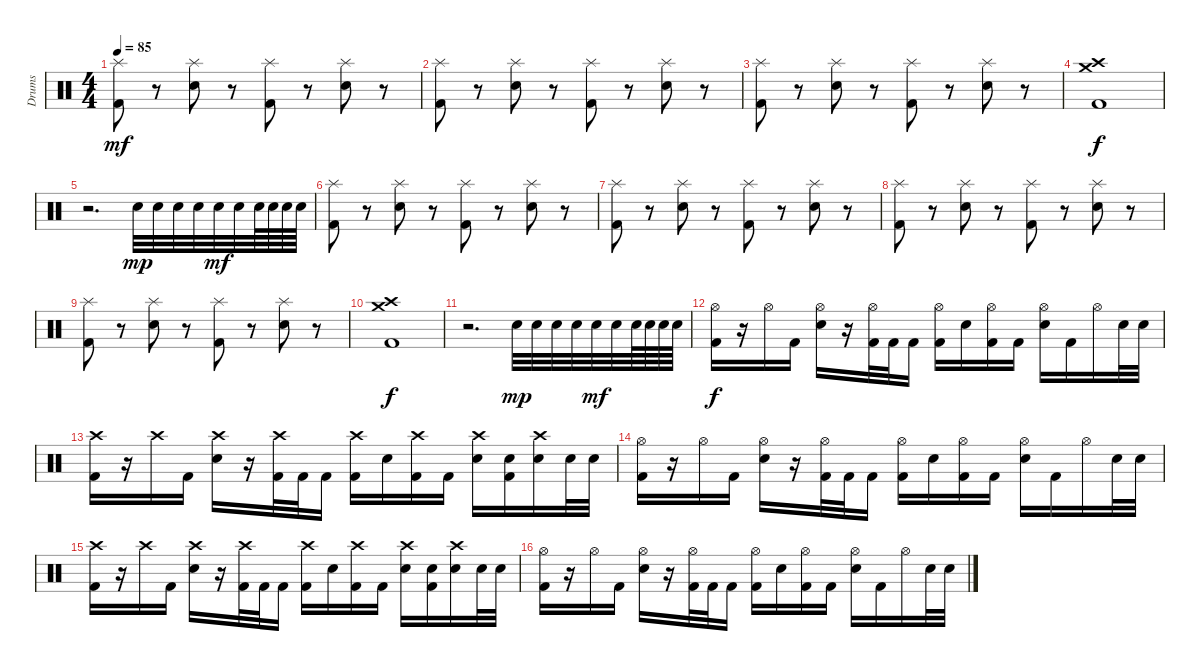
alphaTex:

\track ("Drums" "Drums") {instrument percussion}
\staff {score}
\articulation defaults
\ts (4 4)
\tempo 85
\clef neutral
\ks c
("Splash (hit)" "Kick (hit) 2").8{dy mf} r.8 ("Splash (hit)" "Snare (hit) 2").8 r.8 ("Splash (hit)" "Kick (hit) 2").8 r.8 ("Splash (hit)" "Snare (hit) 2").8 r.8 |
("Splash (hit)" "Kick (hit) 2").8 r.8 ("Splash (hit)" "Snare (hit) 2").8 r.8 ("Splash (hit)" "Kick (hit) 2").8 r.8 ("Splash (hit)" "Snare (hit) 2").8 r.8 |
("Splash (hit)" "Kick (hit) 2").8 r.8 ("Splash (hit)" "Snare (hit) 2").8 r.8 ("Splash (hit)" "Kick (hit) 2").8 r.8 ("Splash (hit)" "Snare (hit) 2").8 r.8 |
("Crash high (hit)" "Kick (hit) 2" "Crash medium (hit)").1{dy f} |
r.2{d} "Electric Snare (hit)".32{dy mp} "Electric Snare (hit)".32 "Electric Snare (hit)".32 "Electric Snare (hit)".32 "Electric Snare (hit)".32{dy mf} "Electric Snare (hit)".32 "Electric Snare (hit)".64 "Electric Snare (hit)".64 "Electric Snare (hit)".64 "Electric Snare (hit)".64 |
("Splash (hit)" "Kick (hit) 2").8 r.8 ("Splash (hit)" "Snare (hit) 2").8 r.8 ("Splash (hit)" "Kick (hit) 2").8 r.8 ("Splash (hit)" "Snare (hit) 2").8 r.8 |
("Splash (hit)" "Kick (hit) 2").8 r.8 ("Splash (hit)" "Snare (hit) 2").8 r.8 ("Splash (hit)" "Kick (hit) 2").8 r.8 ("Splash (hit)" "Snare (hit) 2").8 r.8 |
("Splash (hit)" "Kick (hit) 2").8 r.8 ("Splash (hit)" "Snare (hit) 2").8 r.8 ("Splash (hit)" "Kick (hit) 2").8 r.8 ("Splash (hit)" "Snare (hit) 2").8 r.8 |
("Splash (hit)" "Kick (hit) 2").8 r.8 ("Splash (hit)" "Snare (hit) 2").8 r.8 ("Splash (hit)" "Kick (hit) 2").8 r.8 ("Splash (hit)" "Snare (hit) 2").8 r.8 |
("Crash high (hit)" "Kick (hit) 2" "Crash medium (hit)").1{dy f} |
r.2{d} "Electric Snare (hit)".32{dy mp} "Electric Snare (hit)".32 "Electric Snare (hit)".32 "Electric Snare (hit)".32 "Electric Snare (hit)".32{dy mf} "Electric Snare (hit)".32 "Electric Snare (hit)".64 "Electric Snare (hit)".64 "Electric Snare (hit)".64 "Electric Snare (hit)".64 |
("Hi-Hat (open)" "Kick (hit) 2").16{dy f} r.16 "Hi-Hat (open)".16 "Kick (hit) 2".16 ("Hi-Hat (open)" "Snare (hit) 2").16 r.16 ("Hi-Hat (open)" "Kick (hit) 2").32 "Kick (hit) 2".32 "Kick (hit) 2".16 ("Hi-Hat (open)" "Kick (hit) 2").16 "Snare (hit) 2".16 ("Hi-Hat (open)" "Kick (hit) 2").16 "Kick (hit) 2".16 ("Hi-Hat (open)" "Snare (hit) 2").16 "Kick (hit) 2".16 "Hi-Hat (open)".16 "Snare (hit) 2".32 "Snare (hit) 2".32 |
("Crash high (hit)" "Kick (hit) 2").16 r.16 "Crash high (hit)".16 "Kick (hit) 2".16 ("Crash high (hit)" "Snare (hit) 2").16 r.16 ("Crash high (hit)" "Kick (hit) 2").32 "Kick (hit) 2".32 "Kick (hit) 2".16 ("Crash high (hit)" "Kick (hit) 2").16 "Snare (hit) 2".16 ("Crash high (hit)" "Kick (hit) 2").16 "Kick (hit) 2".16 ("Crash high (hit)" "Snare (hit) 2").16 ("Snare (hit) 2" "Kick (hit) 2").16 ("Crash high (hit)" "Snare (hit) 2").16 "Snare (hit) 2".32 "Snare (hit) 2".32 |
("Hi-Hat (open)" "Kick (hit) 2").16 r.16 "Hi-Hat (open)".16 "Kick (hit) 2".16 ("Hi-Hat (open)" "Snare (hit) 2").16 r.16 ("Hi-Hat (open)" "Kick (hit) 2").32 "Kick (hit) 2".32 "Kick (hit) 2".16 ("Hi-Hat (open)" "Kick (hit) 2").16 "Snare (hit) 2".16 ("Hi-Hat (open)" "Kick (hit) 2").16 "Kick (hit) 2".16 ("Hi-Hat (open)" "Snare (hit) 2").16 "Kick (hit) 2".16 "Hi-Hat (open)".16 "Snare (hit) 2".32 "Snare (hit) 2".32 |
("Crash high (hit)" "Kick (hit) 2").16 r.16 "Crash high (hit)".16 "Kick (hit) 2".16 ("Crash high (hit)" "Snare (hit) 2").16 r.16 ("Crash high (hit)" "Kick (hit) 2").32 "Kick (hit) 2".32 "Kick (hit) 2".16 ("Crash high (hit)" "Kick (hit) 2").16 "Snare (hit) 2".16 ("Crash high (hit)" "Kick (hit) 2").16 "Kick (hit) 2".16 ("Crash high (hit)" "Snare (hit) 2").16 ("Snare (hit) 2" "Kick (hit) 2").16 ("Crash high (hit)" "Snare (hit) 2").16 "Snare (hit) 2".32 "Snare (hit) 2".32 |
("Hi-Hat (open)" "Kick (hit) 2").16 r.16 "Hi-Hat (open)".16 "Kick (hit) 2".16 ("Hi-Hat (open)" "Snare (hit) 2").16 r.16 ("Hi-Hat (open)" "Kick (hit) 2").32 "Kick (hit) 2".32 "Kick (hit) 2".16 ("Hi-Hat (open)" "Kick (hit) 2").16 "Snare (hit) 2".16 ("Hi-Hat (open)" "Kick (hit) 2").16 "Kick (hit) 2".16 ("Hi-Hat (open)" "Snare (hit) 2").16 "Kick (hit) 2".16 "Hi-Hat (open)".16 "Snare (hit) 2".32 "Snare (hit) 2".32
